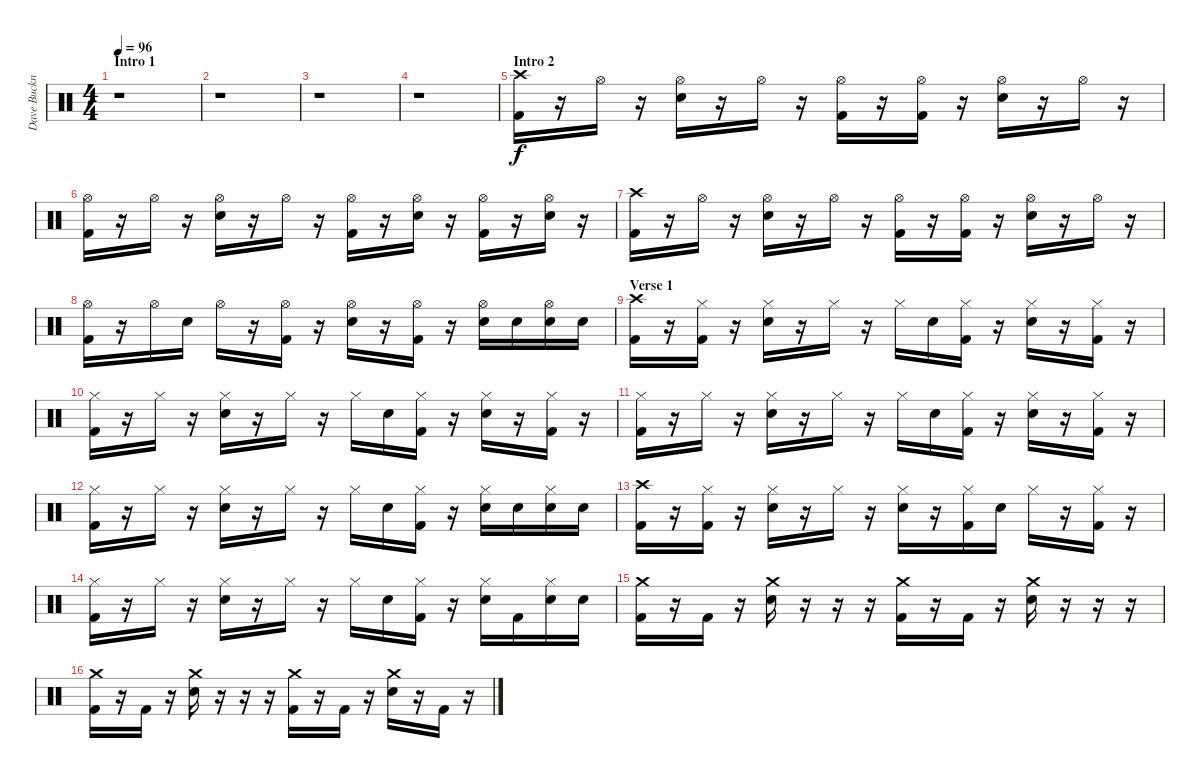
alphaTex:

\track ("Dave Buckner - Drums" "Dave Buckn") {instrument percussion}
\staff {score}
\articulation defaults
\ts (4 4)
\section ("" "Intro 1")
\tempo 96
\clef neutral
\ks c
r.1{dy f} |
r.1 |
r.1 |
r.1 |
\section ("" "Intro 2")
("Crash high (hit)" "Kick (hit) 2").16 r.16 "Hi-Hat (open)".16 r.16 ("Hi-Hat (open)" "Snare (hit) 2").16 r.16 "Hi-Hat (open)".16 r.16 ("Hi-Hat (open)" "Kick (hit) 2").16 r.16 ("Hi-Hat (open)" "Kick (hit) 2").16 r.16 ("Hi-Hat (open)" "Snare (hit) 2").16 r.16 "Hi-Hat (open)".16 r.16 |
("Hi-Hat (open)" "Kick (hit) 2").16 r.16 "Hi-Hat (open)".16 r.16 ("Hi-Hat (open)" "Snare (hit) 2").16 r.16 "Hi-Hat (open)".16 r.16 ("Hi-Hat (open)" "Kick (hit) 2").16 r.16 ("Hi-Hat (open)" "Snare (hit) 2").16 r.16 ("Hi-Hat (open)" "Kick (hit) 2").16 r.16 ("Hi-Hat (open)" "Snare (hit) 2").16 r.16 |
("Crash high (hit)" "Kick (hit) 2").16 r.16 "Hi-Hat (open)".16 r.16 ("Hi-Hat (open)" "Snare (hit) 2").16 r.16 "Hi-Hat (open)".16 r.16 ("Hi-Hat (open)" "Kick (hit) 2").16 r.16 ("Hi-Hat (open)" "Kick (hit) 2").16 r.16 ("Hi-Hat (open)" "Snare (hit) 2").16 r.16 "Hi-Hat (open)".16 r.16 |
("Hi-Hat (open)" "Kick (hit) 2").16 r.16 "Hi-Hat (open)".16 "Snare (hit) 2".16 "Hi-Hat (open)".16 r.16 ("Hi-Hat (open)" "Kick (hit) 2").16 r.16 ("Hi-Hat (open)" "Snare (hit) 2").16 r.16 ("Hi-Hat (open)" "Kick (hit) 2").16 r.16 ("Hi-Hat (open)" "Snare (hit) 2").16 "Snare (hit) 2".16 ("Hi-Hat (open)" "Snare (hit) 2").16 "Snare (hit) 2".16 |
\section ("" "Verse 1")
("Crash high (hit)" "Kick (hit) 2").16 r.16 ("Hi-Hat (closed)" "Kick (hit) 2").16 r.16 ("Hi-Hat (closed)" "Snare (hit) 2").16 r.16 "Hi-Hat (closed)".16 r.16 "Hi-Hat (closed)".16 "Snare (hit) 2".16 ("Hi-Hat (closed)" "Kick (hit) 2").16 r.16 ("Hi-Hat (closed)" "Snare (hit) 2").16 r.16 ("Hi-Hat (closed)" "Kick (hit) 2").16 r.16 |
("Hi-Hat (closed)" "Kick (hit) 2").16 r.16 "Hi-Hat (closed)".16 r.16 ("Hi-Hat (closed)" "Snare (hit) 2").16 r.16 "Hi-Hat (closed)".16 r.16 "Hi-Hat (closed)".16 "Snare (hit) 2".16 ("Hi-Hat (closed)" "Kick (hit) 2").16 r.16 ("Hi-Hat (closed)" "Snare (hit) 2").16 r.16 ("Hi-Hat (closed)" "Kick (hit) 2").16 r.16 |
("Hi-Hat (closed)" "Kick (hit) 2").16 r.16 "Hi-Hat (closed)".16 r.16 ("Hi-Hat (closed)" "Snare (hit) 2").16 r.16 "Hi-Hat (closed)".16 r.16 "Hi-Hat (closed)".16 "Snare (hit) 2".16 ("Hi-Hat (closed)" "Kick (hit) 2").16 r.16 ("Hi-Hat (closed)" "Snare (hit) 2").16 r.16 ("Hi-Hat (closed)" "Kick (hit) 2").16 r.16 |
("Hi-Hat (closed)" "Kick (hit) 2").16 r.16 "Hi-Hat (closed)".16 r.16 ("Hi-Hat (closed)" "Snare (hit) 2").16 r.16 "Hi-Hat (closed)".16 r.16 "Hi-Hat (closed)".16 "Snare (hit) 2".16 ("Hi-Hat (closed)" "Kick (hit) 2").16 r.16 ("Hi-Hat (closed)" "Snare (hit) 2").16 "Snare (hit) 2".16 ("Hi-Hat (closed)" "Snare (hit) 2").16 "Snare (hit) 2".16 |
("Crash high (hit)" "Kick (hit) 2").16 r.16 ("Hi-Hat (closed)" "Kick (hit) 2").16 r.16 ("Hi-Hat (closed)" "Snare (hit) 2").16 r.16 "Hi-Hat (closed)".16 r.16 ("Hi-Hat (closed)" "Snare (hit) 2").16 r.16 ("Hi-Hat (closed)" "Kick (hit) 2").16 "Snare (hit) 2".16 "Hi-Hat (closed)".16 r.16 ("Hi-Hat (closed)" "Kick (hit) 2").16 r.16 |
("Hi-Hat (closed)" "Kick (hit) 2").16 r.16 "Hi-Hat (closed)".16 r.16 ("Hi-Hat (closed)" "Snare (hit) 2").16 r.16 "Hi-Hat (closed)".16 r.16 "Hi-Hat (closed)".16 "Snare (hit) 2".16 ("Hi-Hat (closed)" "Kick (hit) 2").16 r.16 ("Hi-Hat (closed)" "Snare (hit) 2").16 "Kick (hit) 2".16 ("Hi-Hat (closed)" "Snare (hit) 2").16 "Snare (hit) 2".16 |
("Crash medium (hit)" "Kick (hit) 2").16 r.16 "Kick (hit) 2".16 r.16 ("Crash medium (hit)" "Snare (hit) 2").16 r.16 r.16 r.16 ("Crash medium (hit)" "Kick (hit) 2").16 r.16 "Kick (hit) 2".16 r.16 ("Crash medium (hit)" "Snare (hit) 2").16 r.16 r.16 r.16 |
("Crash medium (hit)" "Kick (hit) 2").16 r.16 "Kick (hit) 2".16 r.16 ("Crash medium (hit)" "Snare (hit) 2").16 r.16 r.16 r.16 ("Crash medium (hit)" "Kick (hit) 2").16 r.16 "Kick (hit) 2".16 r.16 ("Crash medium (hit)" "Snare (hit) 2").16 r.16 "Kick (hit) 2".16 r.16
